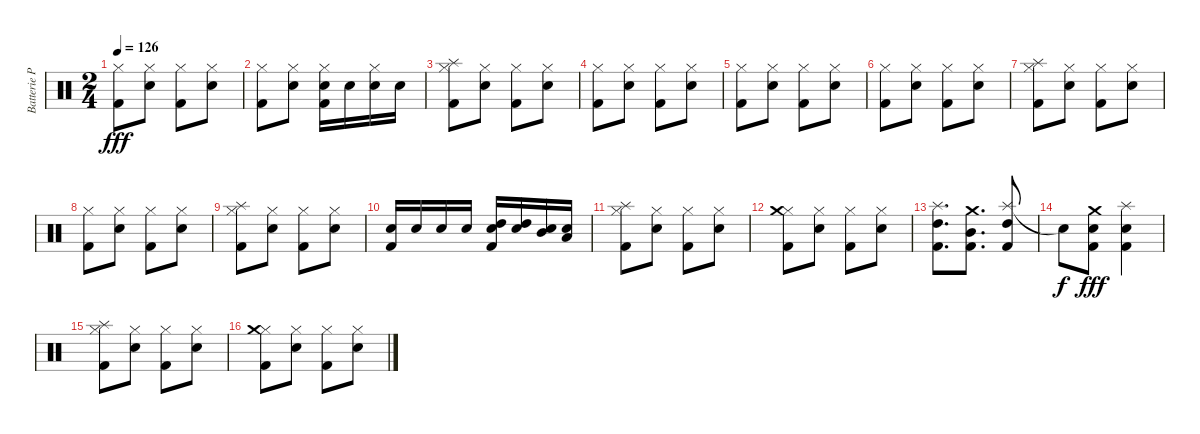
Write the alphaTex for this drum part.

\track ("Batterie Pako" "Batterie P") {instrument percussion}
\staff {score}
\articulation defaults
\ts (2 4)
\tempo 126
\clef neutral
\ks c
("Hi-Hat (closed)" "Kick (hit) 2").8{dy fff} ("Hi-Hat (closed)" "Electric Snare (hit)").8 ("Hi-Hat (closed)" "Kick (hit) 2").8 ("Hi-Hat (closed)" "Electric Snare (hit)").8 |
("Hi-Hat (closed)" "Kick (hit) 2").8 ("Hi-Hat (closed)" "Electric Snare (hit)").8 ("Electric Snare (hit)" "Hi-Hat (closed)" "Kick (hit) 2").16 "Electric Snare (hit)".16 ("Electric Snare (hit)" "Hi-Hat (closed)").16 "Electric Snare (hit)".16 |
("Splash (hit)" "Hi-Hat (closed)" "Kick (hit) 2").8 ("Hi-Hat (closed)" "Electric Snare (hit)").8 ("Hi-Hat (closed)" "Kick (hit) 2").8 ("Hi-Hat (closed)" "Electric Snare (hit)").8 |
("Hi-Hat (closed)" "Kick (hit) 2").8 ("Hi-Hat (closed)" "Electric Snare (hit)").8 ("Hi-Hat (closed)" "Kick (hit) 2").8 ("Hi-Hat (closed)" "Electric Snare (hit)").8 |
("Hi-Hat (closed)" "Kick (hit) 2").8 ("Hi-Hat (closed)" "Electric Snare (hit)").8 ("Hi-Hat (closed)" "Kick (hit) 2").8 ("Hi-Hat (closed)" "Electric Snare (hit)").8 |
("Hi-Hat (closed)" "Kick (hit) 2").8 ("Hi-Hat (closed)" "Electric Snare (hit)").8 ("Hi-Hat (closed)" "Kick (hit) 2").8 ("Hi-Hat (closed)" "Electric Snare (hit)").8 |
("Splash (hit)" "Hi-Hat (closed)" "Kick (hit) 2").8 ("Hi-Hat (closed)" "Electric Snare (hit)").8 ("Hi-Hat (closed)" "Kick (hit) 2").8 ("Hi-Hat (closed)" "Electric Snare (hit)").8 |
("Kick (hit) 2" "Hi-Hat (closed)").8 ("Hi-Hat (closed)" "Electric Snare (hit)").8 ("Hi-Hat (closed)" "Kick (hit) 2").8 ("Hi-Hat (closed)" "Electric Snare (hit)").8 |
("Splash (hit)" "Hi-Hat (closed)" "Kick (hit) 2").8 ("Hi-Hat (closed)" "Electric Snare (hit)").8 ("Hi-Hat (closed)" "Kick (hit) 2").8 ("Hi-Hat (closed)" "Electric Snare (hit)").8 |
("Kick (hit) 2" "Electric Snare (hit)").16 "Electric Snare (hit)".16 "Electric Snare (hit)".16 "Electric Snare (hit)".16 ("Kick (hit) 2" "High Tom (hit)" "Electric Snare (hit)").16 ("High Tom (hit)" "Electric Snare (hit)").16 ("Mid Tom (hit)" "Electric Snare (hit)").16 ("Low Tom (hit)" "Electric Snare (hit)").16 |
("Hi-Hat (closed)" "Kick (hit) 2" "Splash (hit)").8 ("Hi-Hat (closed)" "Electric Snare (hit)").8 ("Hi-Hat (closed)" "Kick (hit) 2").8 ("Hi-Hat (closed)" "Electric Snare (hit)").8 |
("Kick (hit) 2" "Hi-Hat (closed)" "Crash medium (hit)").8 ("Electric Snare (hit)" "Hi-Hat (closed)").8 ("Kick (hit) 2" "Hi-Hat (closed)").8 ("Electric Snare (hit)" "Hi-Hat (closed)").8 |
("Splash (hit)" "High Tom (hit)" "Kick (hit) 2").8{d} ("Crash medium (hit)" "Mid Tom (hit)" "Kick (hit) 2").8{d} ("Splash (hit)" "High Tom (hit)" "Kick (hit) 2").8 |
"Snare (hit)"{t}.8{dy f} ("Crash medium (hit)" "Kick (hit) 2" "Electric Snare (hit)").8{dy fff} ("Splash (hit)" "Kick (hit) 2" "Electric Snare (hit)").4 |
("Hi-Hat (closed)" "Kick (hit) 2" "Splash (hit)").8 ("Hi-Hat (closed)" "Electric Snare (hit)").8 ("Hi-Hat (closed)" "Kick (hit) 2").8 ("Hi-Hat (closed)" "Electric Snare (hit)").8 |
("Kick (hit) 2" "Hi-Hat (closed)" "Crash medium (hit)").8 ("Electric Snare (hit)" "Hi-Hat (closed)").8 ("Kick (hit) 2" "Hi-Hat (closed)").8 ("Electric Snare (hit)" "Hi-Hat (closed)").8
